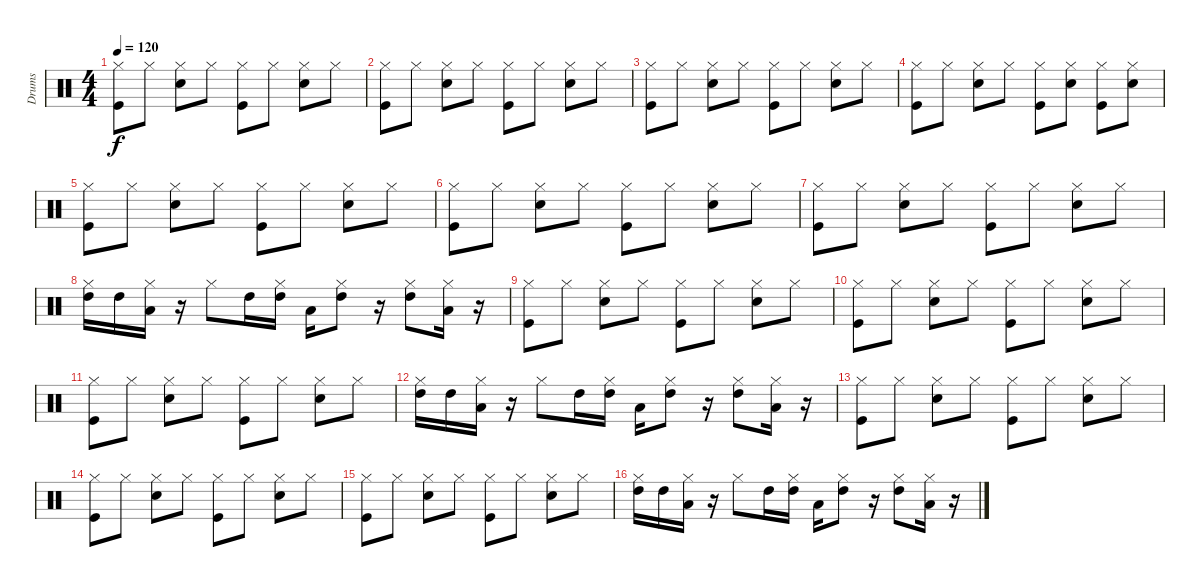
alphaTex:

\track ("Drums" "Drums") {instrument percussion}
\staff {score}
\articulation defaults
\ts (4 4)
\tempo 120
\clef neutral
\ks c
("Kick (hit)" "Hi-Hat (closed)").8{dy f} "Hi-Hat (closed)".8 ("Snare (hit) 2" "Hi-Hat (closed)").8 "Hi-Hat (closed)".8 ("Kick (hit)" "Hi-Hat (closed)").8 "Hi-Hat (closed)".8 ("Snare (hit) 2" "Hi-Hat (closed)").8 "Hi-Hat (closed)".8 |
("Kick (hit)" "Hi-Hat (closed)").8 "Hi-Hat (closed)".8 ("Snare (hit) 2" "Hi-Hat (closed)").8 "Hi-Hat (closed)".8 ("Kick (hit)" "Hi-Hat (closed)").8 "Hi-Hat (closed)".8 ("Snare (hit) 2" "Hi-Hat (closed)").8 "Hi-Hat (closed)".8 |
("Kick (hit)" "Hi-Hat (closed)").8 "Hi-Hat (closed)".8 ("Snare (hit) 2" "Hi-Hat (closed)").8 "Hi-Hat (closed)".8 ("Kick (hit)" "Hi-Hat (closed)").8 "Hi-Hat (closed)".8 ("Snare (hit) 2" "Hi-Hat (closed)").8 "Hi-Hat (closed)".8 |
("Kick (hit)" "Hi-Hat (closed)").8 "Hi-Hat (closed)".8 ("Snare (hit) 2" "Hi-Hat (closed)").8 "Hi-Hat (closed)".8 ("Kick (hit)" "Hi-Hat (closed)").8 ("Snare (hit) 2" "Hi-Hat (closed)").8 ("Kick (hit)" "Hi-Hat (closed)").8 ("Snare (hit) 2" "Hi-Hat (closed)").8 |
("Kick (hit)" "Hi-Hat (closed)").8 "Hi-Hat (closed)".8 ("Snare (hit) 2" "Hi-Hat (closed)").8 "Hi-Hat (closed)".8 ("Kick (hit)" "Hi-Hat (closed)").8 "Hi-Hat (closed)".8 ("Snare (hit) 2" "Hi-Hat (closed)").8 "Hi-Hat (closed)".8 |
("Kick (hit)" "Hi-Hat (closed)").8 "Hi-Hat (closed)".8 ("Snare (hit) 2" "Hi-Hat (closed)").8 "Hi-Hat (closed)".8 ("Kick (hit)" "Hi-Hat (closed)").8 "Hi-Hat (closed)".8 ("Snare (hit) 2" "Hi-Hat (closed)").8 "Hi-Hat (closed)".8 |
("Kick (hit)" "Hi-Hat (closed)").8 "Hi-Hat (closed)".8 ("Snare (hit) 2" "Hi-Hat (closed)").8 "Hi-Hat (closed)".8 ("Kick (hit)" "Hi-Hat (closed)").8 "Hi-Hat (closed)".8 ("Snare (hit) 2" "Hi-Hat (closed)").8 "Hi-Hat (closed)".8 |
("High Tom (hit)" "Hi-Hat (closed)").16 "High Tom (hit)".16 ("Low Tom (hit)" "Hi-Hat (closed)").16 r.16 "Hi-Hat (closed)".8 "High Tom (hit)".16 ("High Tom (hit)" "Hi-Hat (closed)").16 "Low Tom (hit)".16 ("High Tom (hit)" "Hi-Hat (closed)").8 r.16 ("High Tom (hit)" "Hi-Hat (closed)").8 ("Low Tom (hit)" "Hi-Hat (closed)").16 r.16 |
("Kick (hit)" "Hi-Hat (closed)").8 "Hi-Hat (closed)".8 ("Snare (hit) 2" "Hi-Hat (closed)").8 "Hi-Hat (closed)".8 ("Kick (hit)" "Hi-Hat (closed)").8 "Hi-Hat (closed)".8 ("Snare (hit) 2" "Hi-Hat (closed)").8 "Hi-Hat (closed)".8 |
("Kick (hit)" "Hi-Hat (closed)").8 "Hi-Hat (closed)".8 ("Snare (hit) 2" "Hi-Hat (closed)").8 "Hi-Hat (closed)".8 ("Kick (hit)" "Hi-Hat (closed)").8 "Hi-Hat (closed)".8 ("Snare (hit) 2" "Hi-Hat (closed)").8 "Hi-Hat (closed)".8 |
("Kick (hit)" "Hi-Hat (closed)").8 "Hi-Hat (closed)".8 ("Snare (hit) 2" "Hi-Hat (closed)").8 "Hi-Hat (closed)".8 ("Kick (hit)" "Hi-Hat (closed)").8 "Hi-Hat (closed)".8 ("Snare (hit) 2" "Hi-Hat (closed)").8 "Hi-Hat (closed)".8 |
("High Tom (hit)" "Hi-Hat (closed)").16 "High Tom (hit)".16 ("Low Tom (hit)" "Hi-Hat (closed)").16 r.16 "Hi-Hat (closed)".8 "High Tom (hit)".16 ("High Tom (hit)" "Hi-Hat (closed)").16 "Low Tom (hit)".16 ("High Tom (hit)" "Hi-Hat (closed)").8 r.16 ("High Tom (hit)" "Hi-Hat (closed)").8 ("Low Tom (hit)" "Hi-Hat (closed)").16 r.16 |
("Kick (hit)" "Hi-Hat (closed)").8 "Hi-Hat (closed)".8 ("Snare (hit) 2" "Hi-Hat (closed)").8 "Hi-Hat (closed)".8 ("Kick (hit)" "Hi-Hat (closed)").8 "Hi-Hat (closed)".8 ("Snare (hit) 2" "Hi-Hat (closed)").8 "Hi-Hat (closed)".8 |
("Kick (hit)" "Hi-Hat (closed)").8 "Hi-Hat (closed)".8 ("Snare (hit) 2" "Hi-Hat (closed)").8 "Hi-Hat (closed)".8 ("Kick (hit)" "Hi-Hat (closed)").8 "Hi-Hat (closed)".8 ("Snare (hit) 2" "Hi-Hat (closed)").8 "Hi-Hat (closed)".8 |
("Kick (hit)" "Hi-Hat (closed)").8 "Hi-Hat (closed)".8 ("Snare (hit) 2" "Hi-Hat (closed)").8 "Hi-Hat (closed)".8 ("Kick (hit)" "Hi-Hat (closed)").8 "Hi-Hat (closed)".8 ("Snare (hit) 2" "Hi-Hat (closed)").8 "Hi-Hat (closed)".8 |
("High Tom (hit)" "Hi-Hat (closed)").16 "High Tom (hit)".16 ("Low Tom (hit)" "Hi-Hat (closed)").16 r.16 "Hi-Hat (closed)".8 "High Tom (hit)".16 ("High Tom (hit)" "Hi-Hat (closed)").16 "Low Tom (hit)".16 ("High Tom (hit)" "Hi-Hat (closed)").8 r.16 ("High Tom (hit)" "Hi-Hat (closed)").8 ("Low Tom (hit)" "Hi-Hat (closed)").16 r.16
